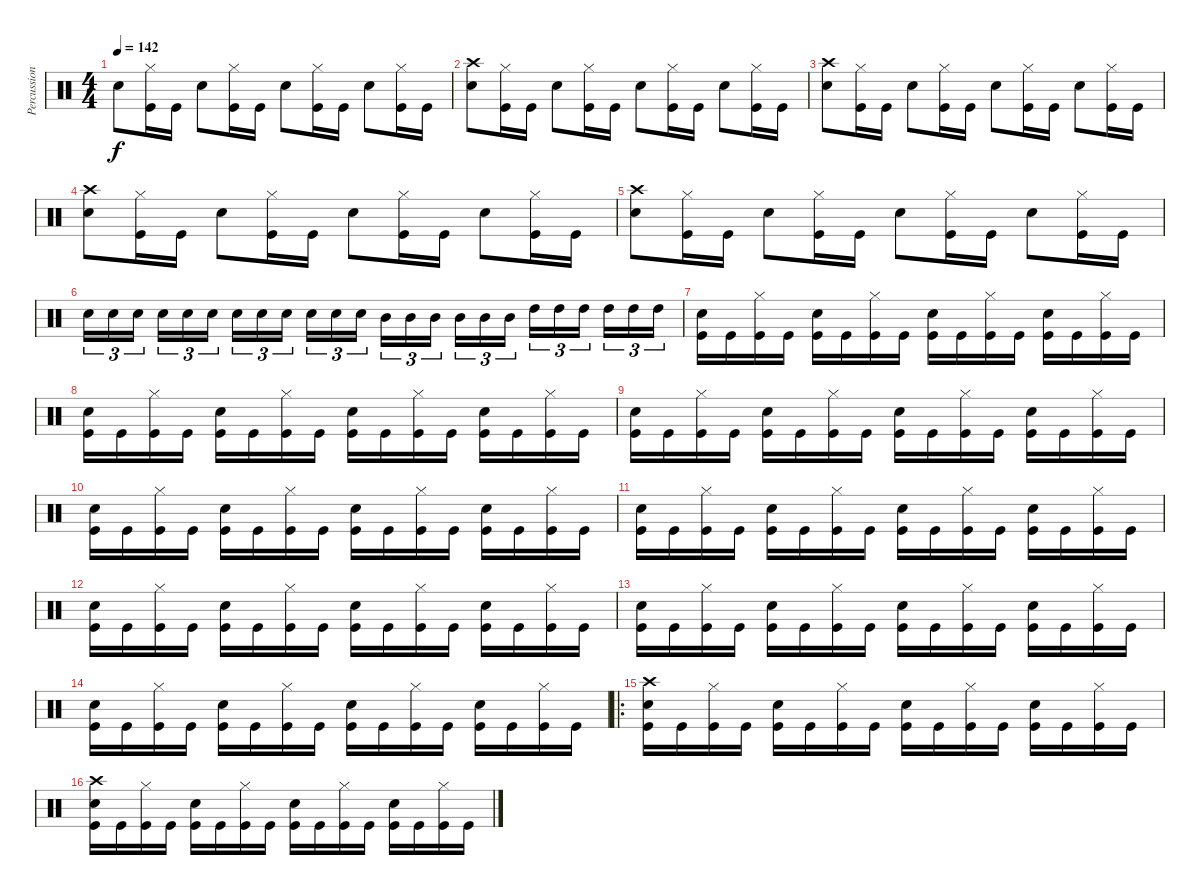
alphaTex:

\track ("Percussion" "Percussion") {instrument percussion}
\staff {score}
\articulation defaults
\ts (4 4)
\tempo 142
\clef neutral
\ks c "Snare (hit) 2".8{dy f}
("Hi-Hat (closed)" "Kick (hit)").16 "Kick (hit)".16 "Snare (hit) 2".8 ("Hi-Hat (closed)" "Kick (hit)").16 "Kick (hit)".16 "Snare (hit) 2".8 ("Hi-Hat (closed)" "Kick (hit)").16 "Kick (hit)".16 "Snare (hit) 2".8 ("Hi-Hat (closed)" "Kick (hit)").16 "Kick (hit)".16 |
("Crash high (hit)" "Snare (hit) 2").8 ("Hi-Hat (closed)" "Kick (hit)").16 "Kick (hit)".16 "Snare (hit) 2".8 ("Hi-Hat (closed)" "Kick (hit)").16 "Kick (hit)".16 "Snare (hit) 2".8 ("Hi-Hat (closed)" "Kick (hit)").16 "Kick (hit)".16 "Snare (hit) 2".8 ("Hi-Hat (closed)" "Kick (hit)").16 "Kick (hit)".16 |
("Crash high (hit)" "Snare (hit) 2").8 ("Hi-Hat (closed)" "Kick (hit)").16 "Kick (hit)".16 "Snare (hit) 2".8 ("Hi-Hat (closed)" "Kick (hit)").16 "Kick (hit)".16 "Snare (hit) 2".8 ("Hi-Hat (closed)" "Kick (hit)").16 "Kick (hit)".16 "Snare (hit) 2".8 ("Hi-Hat (closed)" "Kick (hit)").16 "Kick (hit)".16 |
("Crash high (hit)" "Snare (hit) 2").8 ("Hi-Hat (closed)" "Kick (hit)").16 "Kick (hit)".16 "Snare (hit) 2".8 ("Hi-Hat (closed)" "Kick (hit)").16 "Kick (hit)".16 "Snare (hit) 2".8 ("Hi-Hat (closed)" "Kick (hit)").16 "Kick (hit)".16 "Snare (hit) 2".8 ("Hi-Hat (closed)" "Kick (hit)").16 "Kick (hit)".16 |
("Crash high (hit)" "Snare (hit) 2").8 ("Hi-Hat (closed)" "Kick (hit)").16 "Kick (hit)".16 "Snare (hit) 2".8 ("Hi-Hat (closed)" "Kick (hit)").16 "Kick (hit)".16 "Snare (hit) 2".8 ("Hi-Hat (closed)" "Kick (hit)").16 "Kick (hit)".16 "Snare (hit) 2".8 ("Hi-Hat (closed)" "Kick (hit)").16 "Kick (hit)".16 |
"Snare (hit) 2".16{tu (3 2)} "Snare (hit) 2".16{tu (3 2)} "Snare (hit) 2".16{tu (3 2)} "Snare (hit) 2".16{tu (3 2)} "Snare (hit) 2".16{tu (3 2)} "Snare (hit) 2".16{tu (3 2)} "Snare (hit) 2".16{tu (3 2)} "Snare (hit) 2".16{tu (3 2)} "Snare (hit) 2".16{tu (3 2)} "Snare (hit) 2".16{tu (3 2)} "Snare (hit) 2".16{tu (3 2)} "Snare (hit) 2".16{tu (3 2)} "Mid Tom (hit)".16{tu (3 2)} "Mid Tom (hit)".16{tu (3 2)} "Mid Tom (hit)".16{tu (3 2)} "Mid Tom (hit)".16{tu (3 2)} "Mid Tom (hit)".16{tu (3 2)} "Mid Tom (hit)".16{tu (3 2)} "High Tom (hit)".16{tu (3 2)} "High Tom (hit)".16{tu (3 2)} "High Tom (hit)".16{tu (3 2)} "High Tom (hit)".16{tu (3 2)} "High Tom (hit)".16{tu (3 2)} "High Tom (hit)".16{tu (3 2)} |
("Snare (hit) 2" "Kick (hit)").16 "Kick (hit)".16 ("Hi-Hat (closed)" "Kick (hit)").16 "Kick (hit)".16 ("Snare (hit) 2" "Kick (hit)").16 "Kick (hit)".16 ("Hi-Hat (closed)" "Kick (hit)").16 "Kick (hit)".16 ("Snare (hit) 2" "Kick (hit)").16 "Kick (hit)".16 ("Hi-Hat (closed)" "Kick (hit)").16 "Kick (hit)".16 ("Snare (hit) 2" "Kick (hit)").16 "Kick (hit)".16 ("Hi-Hat (closed)" "Kick (hit)").16 "Kick (hit)".16 |
("Snare (hit) 2" "Kick (hit)").16 "Kick (hit)".16 ("Hi-Hat (closed)" "Kick (hit)").16 "Kick (hit)".16 ("Snare (hit) 2" "Kick (hit)").16 "Kick (hit)".16 ("Hi-Hat (closed)" "Kick (hit)").16 "Kick (hit)".16 ("Snare (hit) 2" "Kick (hit)").16 "Kick (hit)".16 ("Hi-Hat (closed)" "Kick (hit)").16 "Kick (hit)".16 ("Snare (hit) 2" "Kick (hit)").16 "Kick (hit)".16 ("Hi-Hat (closed)" "Kick (hit)").16 "Kick (hit)".16 |
("Snare (hit) 2" "Kick (hit)").16 "Kick (hit)".16 ("Hi-Hat (closed)" "Kick (hit)").16 "Kick (hit)".16 ("Snare (hit) 2" "Kick (hit)").16 "Kick (hit)".16 ("Hi-Hat (closed)" "Kick (hit)").16 "Kick (hit)".16 ("Snare (hit) 2" "Kick (hit)").16 "Kick (hit)".16 ("Hi-Hat (closed)" "Kick (hit)").16 "Kick (hit)".16 ("Snare (hit) 2" "Kick (hit)").16 "Kick (hit)".16 ("Hi-Hat (closed)" "Kick (hit)").16 "Kick (hit)".16 |
("Snare (hit) 2" "Kick (hit)").16 "Kick (hit)".16 ("Hi-Hat (closed)" "Kick (hit)").16 "Kick (hit)".16 ("Snare (hit) 2" "Kick (hit)").16 "Kick (hit)".16 ("Hi-Hat (closed)" "Kick (hit)").16 "Kick (hit)".16 ("Snare (hit) 2" "Kick (hit)").16 "Kick (hit)".16 ("Hi-Hat (closed)" "Kick (hit)").16 "Kick (hit)".16 ("Snare (hit) 2" "Kick (hit)").16 "Kick (hit)".16 ("Hi-Hat (closed)" "Kick (hit)").16 "Kick (hit)".16 |
("Snare (hit) 2" "Kick (hit)").16 "Kick (hit)".16 ("Hi-Hat (closed)" "Kick (hit)").16 "Kick (hit)".16 ("Snare (hit) 2" "Kick (hit)").16 "Kick (hit)".16 ("Hi-Hat (closed)" "Kick (hit)").16 "Kick (hit)".16 ("Snare (hit) 2" "Kick (hit)").16 "Kick (hit)".16 ("Hi-Hat (closed)" "Kick (hit)").16 "Kick (hit)".16 ("Snare (hit) 2" "Kick (hit)").16 "Kick (hit)".16 ("Hi-Hat (closed)" "Kick (hit)").16 "Kick (hit)".16 |
("Snare (hit) 2" "Kick (hit)").16 "Kick (hit)".16 ("Hi-Hat (closed)" "Kick (hit)").16 "Kick (hit)".16 ("Snare (hit) 2" "Kick (hit)").16 "Kick (hit)".16 ("Hi-Hat (closed)" "Kick (hit)").16 "Kick (hit)".16 ("Snare (hit) 2" "Kick (hit)").16 "Kick (hit)".16 ("Hi-Hat (closed)" "Kick (hit)").16 "Kick (hit)".16 ("Snare (hit) 2" "Kick (hit)").16 "Kick (hit)".16 ("Hi-Hat (closed)" "Kick (hit)").16 "Kick (hit)".16 |
("Snare (hit) 2" "Kick (hit)").16 "Kick (hit)".16 ("Hi-Hat (closed)" "Kick (hit)").16 "Kick (hit)".16 ("Snare (hit) 2" "Kick (hit)").16 "Kick (hit)".16 ("Hi-Hat (closed)" "Kick (hit)").16 "Kick (hit)".16 ("Snare (hit) 2" "Kick (hit)").16 "Kick (hit)".16 ("Hi-Hat (closed)" "Kick (hit)").16 "Kick (hit)".16 ("Snare (hit) 2" "Kick (hit)").16 "Kick (hit)".16 ("Hi-Hat (closed)" "Kick (hit)").16 "Kick (hit)".16 |
("Snare (hit) 2" "Kick (hit)").16 "Kick (hit)".16 ("Hi-Hat (closed)" "Kick (hit)").16 "Kick (hit)".16 ("Snare (hit) 2" "Kick (hit)").16 "Kick (hit)".16 ("Hi-Hat (closed)" "Kick (hit)").16 "Kick (hit)".16 ("Snare (hit) 2" "Kick (hit)").16 "Kick (hit)".16 ("Hi-Hat (closed)" "Kick (hit)").16 "Kick (hit)".16 ("Snare (hit) 2" "Kick (hit)").16 "Kick (hit)".16 ("Hi-Hat (closed)" "Kick (hit)").16 "Kick (hit)".16 |
\ro
("Crash high (hit)" "Snare (hit) 2" "Kick (hit)").16 "Kick (hit)".16 ("Hi-Hat (closed)" "Kick (hit)").16 "Kick (hit)".16 ("Snare (hit) 2" "Kick (hit)").16 "Kick (hit)".16 ("Hi-Hat (closed)" "Kick (hit)").16 "Kick (hit)".16 ("Snare (hit) 2" "Kick (hit)").16 "Kick (hit)".16 ("Hi-Hat (closed)" "Kick (hit)").16 "Kick (hit)".16 ("Snare (hit) 2" "Kick (hit)").16 "Kick (hit)".16 ("Hi-Hat (closed)" "Kick (hit)").16 "Kick (hit)".16 |
("Crash high (hit)" "Snare (hit) 2" "Kick (hit)").16 "Kick (hit)".16 ("Hi-Hat (closed)" "Kick (hit)").16 "Kick (hit)".16 ("Snare (hit) 2" "Kick (hit)").16 "Kick (hit)".16 ("Hi-Hat (closed)" "Kick (hit)").16 "Kick (hit)".16 ("Snare (hit) 2" "Kick (hit)").16 "Kick (hit)".16 ("Hi-Hat (closed)" "Kick (hit)").16 "Kick (hit)".16 ("Snare (hit) 2" "Kick (hit)").16 "Kick (hit)".16 ("Hi-Hat (closed)" "Kick (hit)").16 "Kick (hit)".16
